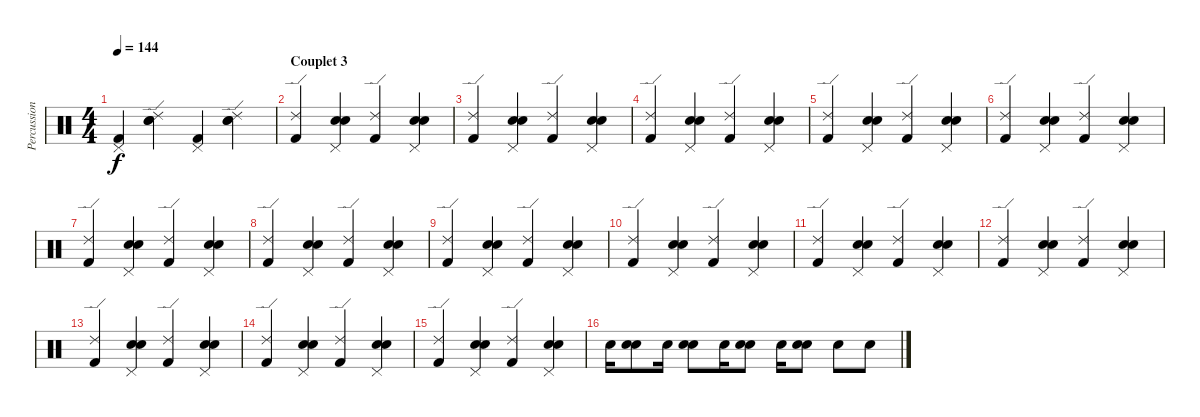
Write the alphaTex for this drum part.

\track ("Percussions" "Percussion") {instrument percussion}
\staff {score}
\articulation defaults
\ts (4 4)
\tempo 144
\clef neutral
\ks c
("Kick (hit) 2" "Pedal Hi-Hat (hit)").4{dy f} ("Snare (hit) 2" "Electric Snare (hit)" "Ride (edge) 2").4 ("Kick (hit) 2" "Pedal Hi-Hat (hit)").4 ("Snare (hit) 2" "Electric Snare (hit)" "Ride (edge) 2").4 |
\section ("" "Couplet 3")
("Kick (hit) 2" "Ride (edge) 2").4 ("Snare (hit) 2" "Electric Snare (hit)" "Pedal Hi-Hat (hit)").4 ("Kick (hit) 2" "Ride (edge) 2").4 ("Snare (hit) 2" "Electric Snare (hit)" "Pedal Hi-Hat (hit)").4 |
("Kick (hit) 2" "Ride (edge) 2").4 ("Snare (hit) 2" "Electric Snare (hit)" "Pedal Hi-Hat (hit)").4 ("Kick (hit) 2" "Ride (edge) 2").4 ("Snare (hit) 2" "Electric Snare (hit)" "Pedal Hi-Hat (hit)").4 |
("Kick (hit) 2" "Ride (edge) 2").4 ("Snare (hit) 2" "Electric Snare (hit)" "Pedal Hi-Hat (hit)").4 ("Kick (hit) 2" "Ride (edge) 2").4 ("Snare (hit) 2" "Electric Snare (hit)" "Pedal Hi-Hat (hit)").4 |
("Kick (hit) 2" "Ride (edge) 2").4 ("Snare (hit) 2" "Electric Snare (hit)" "Pedal Hi-Hat (hit)").4 ("Kick (hit) 2" "Ride (edge) 2").4 ("Snare (hit) 2" "Electric Snare (hit)" "Pedal Hi-Hat (hit)").4 |
("Kick (hit) 2" "Ride (edge) 2").4 ("Snare (hit) 2" "Electric Snare (hit)" "Pedal Hi-Hat (hit)").4 ("Kick (hit) 2" "Ride (edge) 2").4 ("Snare (hit) 2" "Electric Snare (hit)" "Pedal Hi-Hat (hit)").4 |
("Kick (hit) 2" "Ride (edge) 2").4 ("Snare (hit) 2" "Electric Snare (hit)" "Pedal Hi-Hat (hit)").4 ("Kick (hit) 2" "Ride (edge) 2").4 ("Snare (hit) 2" "Electric Snare (hit)" "Pedal Hi-Hat (hit)").4 |
("Kick (hit) 2" "Ride (edge) 2").4 ("Snare (hit) 2" "Electric Snare (hit)" "Pedal Hi-Hat (hit)").4 ("Kick (hit) 2" "Ride (edge) 2").4 ("Snare (hit) 2" "Electric Snare (hit)" "Pedal Hi-Hat (hit)").4 |
("Kick (hit) 2" "Ride (edge) 2").4 ("Snare (hit) 2" "Electric Snare (hit)" "Pedal Hi-Hat (hit)").4 ("Kick (hit) 2" "Ride (edge) 2").4 ("Snare (hit) 2" "Electric Snare (hit)" "Pedal Hi-Hat (hit)").4 |
("Kick (hit) 2" "Ride (edge) 2").4 ("Snare (hit) 2" "Electric Snare (hit)" "Pedal Hi-Hat (hit)").4 ("Kick (hit) 2" "Ride (edge) 2").4 ("Snare (hit) 2" "Electric Snare (hit)" "Pedal Hi-Hat (hit)").4 |
("Kick (hit) 2" "Ride (edge) 2").4 ("Snare (hit) 2" "Electric Snare (hit)" "Pedal Hi-Hat (hit)").4 ("Kick (hit) 2" "Ride (edge) 2").4 ("Snare (hit) 2" "Electric Snare (hit)" "Pedal Hi-Hat (hit)").4 |
("Kick (hit) 2" "Ride (edge) 2").4 ("Snare (hit) 2" "Electric Snare (hit)" "Pedal Hi-Hat (hit)").4 ("Kick (hit) 2" "Ride (edge) 2").4 ("Snare (hit) 2" "Electric Snare (hit)" "Pedal Hi-Hat (hit)").4 |
("Kick (hit) 2" "Ride (edge) 2").4 ("Snare (hit) 2" "Electric Snare (hit)" "Pedal Hi-Hat (hit)").4 ("Kick (hit) 2" "Ride (edge) 2").4 ("Snare (hit) 2" "Electric Snare (hit)" "Pedal Hi-Hat (hit)").4 |
("Kick (hit) 2" "Ride (edge) 2").4 ("Snare (hit) 2" "Electric Snare (hit)" "Pedal Hi-Hat (hit)").4 ("Kick (hit) 2" "Ride (edge) 2").4 ("Snare (hit) 2" "Electric Snare (hit)" "Pedal Hi-Hat (hit)").4 |
("Kick (hit) 2" "Ride (edge) 2").4 ("Snare (hit) 2" "Electric Snare (hit)" "Pedal Hi-Hat (hit)").4 ("Kick (hit) 2" "Ride (edge) 2").4 ("Snare (hit) 2" "Electric Snare (hit)" "Pedal Hi-Hat (hit)").4 |
"Snare (hit) 2".16 ("Snare (hit) 2" "Electric Snare (hit)").8 "Snare (hit) 2".16 ("Snare (hit) 2" "Electric Snare (hit)").8 "Snare (hit) 2".16 ("Snare (hit) 2" "Electric Snare (hit)").8 "Snare (hit) 2".16 ("Snare (hit) 2" "Electric Snare (hit)").8 "Electric Snare (hit)".8 "Electric Snare (hit)".8
